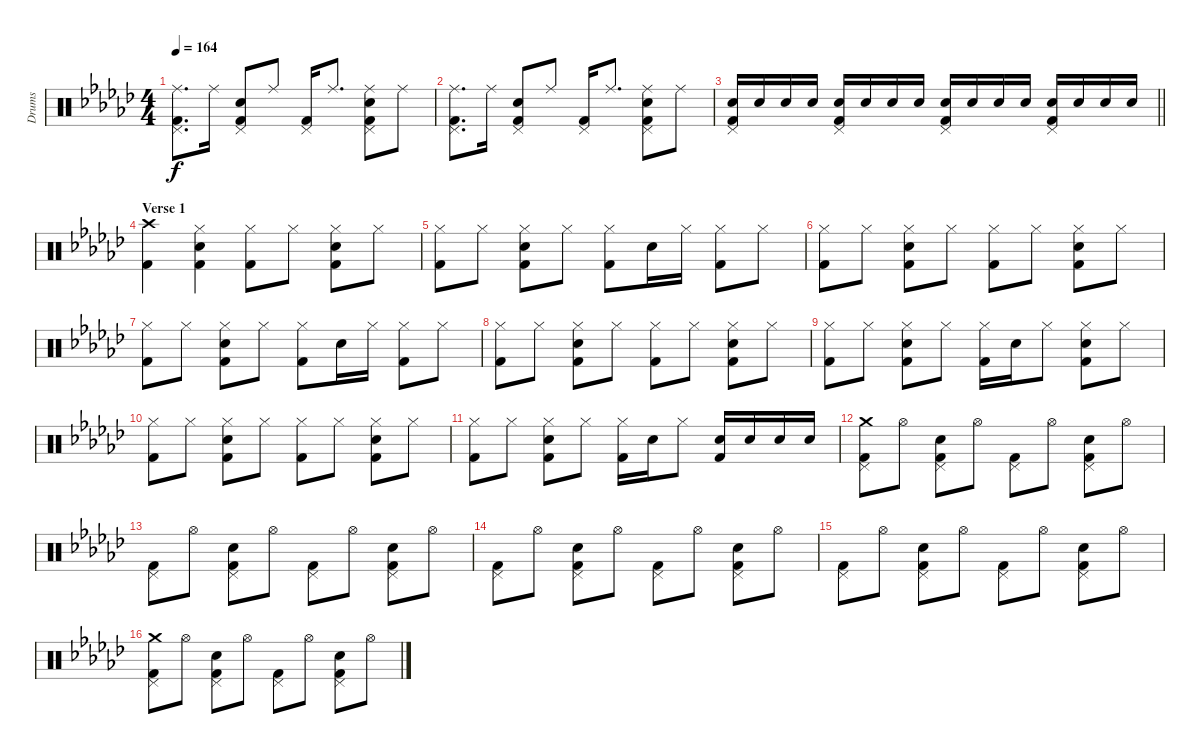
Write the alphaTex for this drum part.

\track ("Drums" "Drums") {instrument percussion}
\staff {score}
\articulation defaults
\ts (4 4)
\tempo 164
\clef neutral
\ks gb
("Ride (middle)" "Pedal Hi-Hat (hit)" "Kick (hit) 2").8{d dy f} "Ride (middle)".16 ("Snare (hit) 2" "Pedal Hi-Hat (hit)" "Kick (hit) 2").8 "Ride (middle)".8 ("Pedal Hi-Hat (hit)" "Kick (hit) 2").16 "Ride (middle)".8{d} ("Ride (middle)" "Snare (hit) 2" "Pedal Hi-Hat (hit)" "Kick (hit) 2").8 "Ride (middle)".8 |
("Ride (middle)" "Pedal Hi-Hat (hit)" "Kick (hit) 2").8{d} "Ride (middle)".16 ("Snare (hit) 2" "Pedal Hi-Hat (hit)" "Kick (hit) 2").8 "Ride (middle)".8 ("Pedal Hi-Hat (hit)" "Kick (hit) 2").16 "Ride (middle)".8{d} ("Ride (middle)" "Snare (hit) 2" "Pedal Hi-Hat (hit)" "Kick (hit) 2").8 "Ride (middle)".8 |
\barLineRight lightlight
("Snare (hit) 2" "Pedal Hi-Hat (hit)" "Kick (hit) 2").16 "Snare (hit) 2".16 "Snare (hit) 2".16 "Snare (hit) 2".16 ("Snare (hit) 2" "Pedal Hi-Hat (hit)" "Kick (hit) 2").16 "Snare (hit) 2".16 "Snare (hit) 2".16 "Snare (hit) 2".16 ("Snare (hit) 2" "Pedal Hi-Hat (hit)" "Kick (hit) 2").16 "Snare (hit) 2".16 "Snare (hit) 2".16 "Snare (hit) 2".16 ("Snare (hit) 2" "Pedal Hi-Hat (hit)" "Kick (hit) 2").16 "Snare (hit) 2".16 "Snare (hit) 2".16 "Snare (hit) 2".16 |
\section ("" "Verse 1")
("Crash high (hit)" "Kick (hit) 2").4 ("Hi-Hat (closed)" "Snare (hit) 2" "Kick (hit) 2").4 ("Hi-Hat (closed)" "Kick (hit) 2").8 "Hi-Hat (closed)".8 ("Hi-Hat (closed)" "Snare (hit) 2" "Kick (hit) 2").8 "Hi-Hat (closed)".8 |
("Hi-Hat (closed)" "Kick (hit) 2").8 "Hi-Hat (closed)".8 ("Hi-Hat (closed)" "Snare (hit) 2" "Kick (hit) 2").8 "Hi-Hat (closed)".8 ("Hi-Hat (closed)" "Kick (hit) 2").8 "Snare (hit) 2".16 "Hi-Hat (closed)".16 ("Hi-Hat (closed)" "Kick (hit) 2").8 "Hi-Hat (closed)".8 |
("Hi-Hat (closed)" "Kick (hit) 2").8 "Hi-Hat (closed)".8 ("Hi-Hat (closed)" "Snare (hit) 2" "Kick (hit) 2").8 "Hi-Hat (closed)".8 ("Hi-Hat (closed)" "Kick (hit) 2").8 "Hi-Hat (closed)".8 ("Hi-Hat (closed)" "Snare (hit) 2" "Kick (hit) 2").8 "Hi-Hat (closed)".8 |
("Hi-Hat (closed)" "Kick (hit) 2").8 "Hi-Hat (closed)".8 ("Hi-Hat (closed)" "Snare (hit) 2" "Kick (hit) 2").8 "Hi-Hat (closed)".8 ("Hi-Hat (closed)" "Kick (hit) 2").8 "Snare (hit) 2".16 "Hi-Hat (closed)".16 ("Hi-Hat (closed)" "Kick (hit) 2").8 "Hi-Hat (closed)".8 |
("Hi-Hat (closed)" "Kick (hit) 2").8 "Hi-Hat (closed)".8 ("Hi-Hat (closed)" "Snare (hit) 2" "Kick (hit) 2").8 "Hi-Hat (closed)".8 ("Hi-Hat (closed)" "Kick (hit) 2").8 "Hi-Hat (closed)".8 ("Hi-Hat (closed)" "Snare (hit) 2" "Kick (hit) 2").8 "Hi-Hat (closed)".8 |
("Hi-Hat (closed)" "Kick (hit) 2").8 "Hi-Hat (closed)".8 ("Hi-Hat (closed)" "Snare (hit) 2" "Kick (hit) 2").8 "Hi-Hat (closed)".8 ("Hi-Hat (closed)" "Kick (hit) 2").16 "Snare (hit) 2".16 "Hi-Hat (closed)".8 ("Hi-Hat (closed)" "Snare (hit) 2" "Kick (hit) 2").8 "Hi-Hat (closed)".8 |
("Hi-Hat (closed)" "Kick (hit) 2").8 "Hi-Hat (closed)".8 ("Hi-Hat (closed)" "Snare (hit) 2" "Kick (hit) 2").8 "Hi-Hat (closed)".8 ("Hi-Hat (closed)" "Kick (hit) 2").8 "Hi-Hat (closed)".8 ("Hi-Hat (closed)" "Snare (hit) 2" "Kick (hit) 2").8 "Hi-Hat (closed)".8 |
("Hi-Hat (closed)" "Kick (hit) 2").8 "Hi-Hat (closed)".8 ("Hi-Hat (closed)" "Snare (hit) 2" "Kick (hit) 2").8 "Hi-Hat (closed)".8 ("Hi-Hat (closed)" "Kick (hit) 2").16 "Snare (hit) 2".16 "Hi-Hat (closed)".8 ("Snare (hit) 2" "Kick (hit) 2").16 "Snare (hit) 2".16 "Snare (hit) 2".16 "Snare (hit) 2".16 |
("Crash medium (hit)" "Pedal Hi-Hat (hit)" "Kick (hit) 2").8 "Hi-Hat (open)".8 ("Snare (hit) 2" "Pedal Hi-Hat (hit)" "Kick (hit) 2").8 "Hi-Hat (open)".8 ("Pedal Hi-Hat (hit)" "Kick (hit) 2").8 "Hi-Hat (open)".8 ("Snare (hit) 2" "Pedal Hi-Hat (hit)" "Kick (hit) 2").8 "Hi-Hat (open)".8 |
("Pedal Hi-Hat (hit)" "Kick (hit) 2").8 "Hi-Hat (open)".8 ("Snare (hit) 2" "Pedal Hi-Hat (hit)" "Kick (hit) 2").8 "Hi-Hat (open)".8 ("Pedal Hi-Hat (hit)" "Kick (hit) 2").8 "Hi-Hat (open)".8 ("Snare (hit) 2" "Pedal Hi-Hat (hit)" "Kick (hit) 2").8 "Hi-Hat (open)".8 |
("Pedal Hi-Hat (hit)" "Kick (hit) 2").8 "Hi-Hat (open)".8 ("Snare (hit) 2" "Pedal Hi-Hat (hit)" "Kick (hit) 2").8 "Hi-Hat (open)".8 ("Pedal Hi-Hat (hit)" "Kick (hit) 2").8 "Hi-Hat (open)".8 ("Snare (hit) 2" "Pedal Hi-Hat (hit)" "Kick (hit) 2").8 "Hi-Hat (open)".8 |
("Pedal Hi-Hat (hit)" "Kick (hit) 2").8 "Hi-Hat (open)".8 ("Snare (hit) 2" "Pedal Hi-Hat (hit)" "Kick (hit) 2").8 "Hi-Hat (open)".8 ("Pedal Hi-Hat (hit)" "Kick (hit) 2").8 "Hi-Hat (open)".8 ("Snare (hit) 2" "Pedal Hi-Hat (hit)" "Kick (hit) 2").8 "Hi-Hat (open)".8 |
("Crash medium (hit)" "Pedal Hi-Hat (hit)" "Kick (hit) 2").8 "Hi-Hat (open)".8 ("Snare (hit) 2" "Pedal Hi-Hat (hit)" "Kick (hit) 2").8 "Hi-Hat (open)".8 ("Pedal Hi-Hat (hit)" "Kick (hit) 2").8 "Hi-Hat (open)".8 ("Snare (hit) 2" "Pedal Hi-Hat (hit)" "Kick (hit) 2").8 "Hi-Hat (open)".8
